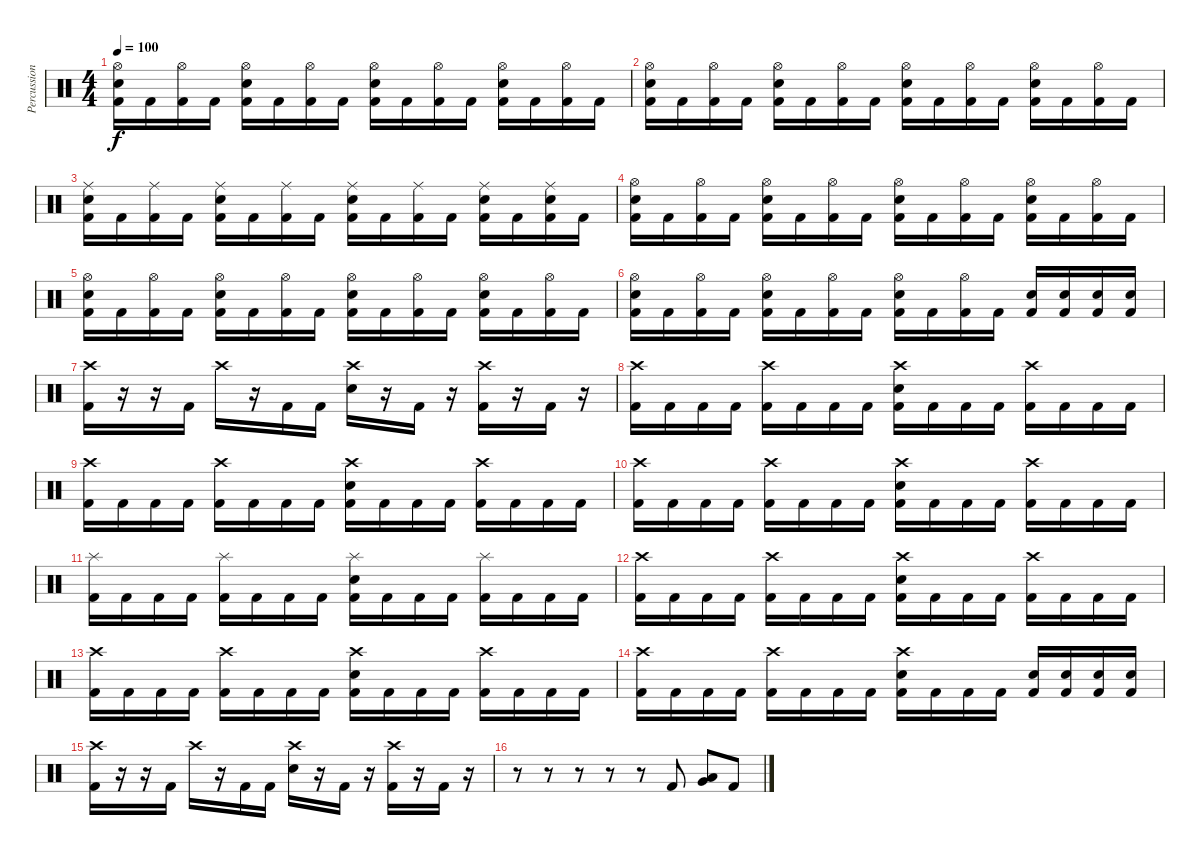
\track ("Percussion" "Percussion") {instrument percussion}
\staff {score}
\articulation defaults
\ts (4 4)
\tempo 100
\clef neutral
\ks c
("Hi-Hat (open)" "Electric Snare (hit)" "Kick (hit) 2").16{dy f} "Kick (hit) 2".16 ("Hi-Hat (open)" "Kick (hit) 2").16 "Kick (hit) 2".16 ("Hi-Hat (open)" "Electric Snare (hit)" "Kick (hit) 2").16 "Kick (hit) 2".16 ("Hi-Hat (open)" "Kick (hit) 2").16 "Kick (hit) 2".16 ("Hi-Hat (open)" "Electric Snare (hit)" "Kick (hit) 2").16 "Kick (hit) 2".16 ("Hi-Hat (open)" "Kick (hit) 2").16 "Kick (hit) 2".16 ("Hi-Hat (open)" "Electric Snare (hit)" "Kick (hit) 2").16 "Kick (hit) 2".16 ("Hi-Hat (open)" "Kick (hit) 2").16 "Kick (hit) 2".16 |
("Hi-Hat (open)" "Electric Snare (hit)" "Kick (hit) 2").16 "Kick (hit) 2".16 ("Hi-Hat (open)" "Kick (hit) 2").16 "Kick (hit) 2".16 ("Hi-Hat (open)" "Electric Snare (hit)" "Kick (hit) 2").16 "Kick (hit) 2".16 ("Hi-Hat (open)" "Kick (hit) 2").16 "Kick (hit) 2".16 ("Hi-Hat (open)" "Electric Snare (hit)" "Kick (hit) 2").16 "Kick (hit) 2".16 ("Hi-Hat (open)" "Kick (hit) 2").16 "Kick (hit) 2".16 ("Hi-Hat (open)" "Electric Snare (hit)" "Kick (hit) 2").16 "Kick (hit) 2".16 ("Hi-Hat (open)" "Kick (hit) 2").16 "Kick (hit) 2".16 |
("Ride (middle)" "Electric Snare (hit)" "Kick (hit) 2").16 "Kick (hit) 2".16 ("Ride (middle)" "Kick (hit) 2").16 "Kick (hit) 2".16 ("Ride (middle)" "Electric Snare (hit)" "Kick (hit) 2").16 "Kick (hit) 2".16 ("Ride (middle)" "Kick (hit) 2").16 "Kick (hit) 2".16 ("Ride (middle)" "Electric Snare (hit)" "Kick (hit) 2").16 "Kick (hit) 2".16 ("Ride (middle)" "Kick (hit) 2").16 "Kick (hit) 2".16 ("Ride (middle)" "Electric Snare (hit)" "Kick (hit) 2").16 "Kick (hit) 2".16 ("Ride (middle)" "Electric Snare (hit)" "Kick (hit) 2").16 "Kick (hit) 2".16 |
("Hi-Hat (open)" "Electric Snare (hit)" "Kick (hit) 2").16 "Kick (hit) 2".16 ("Hi-Hat (open)" "Kick (hit) 2").16 "Kick (hit) 2".16 ("Hi-Hat (open)" "Electric Snare (hit)" "Kick (hit) 2").16 "Kick (hit) 2".16 ("Hi-Hat (open)" "Kick (hit) 2").16 "Kick (hit) 2".16 ("Hi-Hat (open)" "Electric Snare (hit)" "Kick (hit) 2").16 "Kick (hit) 2".16 ("Hi-Hat (open)" "Kick (hit) 2").16 "Kick (hit) 2".16 ("Hi-Hat (open)" "Electric Snare (hit)" "Kick (hit) 2").16 "Kick (hit) 2".16 ("Hi-Hat (open)" "Kick (hit) 2").16 "Kick (hit) 2".16 |
("Hi-Hat (open)" "Electric Snare (hit)" "Kick (hit) 2").16 "Kick (hit) 2".16 ("Hi-Hat (open)" "Kick (hit) 2").16 "Kick (hit) 2".16 ("Hi-Hat (open)" "Electric Snare (hit)" "Kick (hit) 2").16 "Kick (hit) 2".16 ("Hi-Hat (open)" "Kick (hit) 2").16 "Kick (hit) 2".16 ("Hi-Hat (open)" "Electric Snare (hit)" "Kick (hit) 2").16 "Kick (hit) 2".16 ("Hi-Hat (open)" "Kick (hit) 2").16 "Kick (hit) 2".16 ("Hi-Hat (open)" "Electric Snare (hit)" "Kick (hit) 2").16 "Kick (hit) 2".16 ("Hi-Hat (open)" "Kick (hit) 2").16 "Kick (hit) 2".16 |
("Hi-Hat (open)" "Electric Snare (hit)" "Kick (hit) 2").16 "Kick (hit) 2".16 ("Hi-Hat (open)" "Kick (hit) 2").16 "Kick (hit) 2".16 ("Hi-Hat (open)" "Electric Snare (hit)" "Kick (hit) 2").16 "Kick (hit) 2".16 ("Hi-Hat (open)" "Kick (hit) 2").16 "Kick (hit) 2".16 ("Hi-Hat (open)" "Electric Snare (hit)" "Kick (hit) 2").16 "Kick (hit) 2".16 ("Hi-Hat (open)" "Kick (hit) 2").16 "Kick (hit) 2".16 ("Electric Snare (hit)" "Kick (hit) 2").16 ("Electric Snare (hit)" "Kick (hit) 2").16 ("Electric Snare (hit)" "Kick (hit) 2").16 ("Electric Snare (hit)" "Kick (hit) 2").16 |
("Crash high (hit)" "Kick (hit) 2").16 r.16 r.16 "Kick (hit) 2".16 "Crash high (hit)".16 r.16 "Kick (hit) 2".16 "Kick (hit) 2".16 ("Crash high (hit)" "Electric Snare (hit)").16 r.16 "Kick (hit) 2".16 r.16 ("Crash high (hit)" "Kick (hit) 2").16 r.16 "Kick (hit) 2".16 r.16 |
("Crash high (hit)" "Kick (hit) 2").16 "Kick (hit) 2".16 "Kick (hit) 2".16 "Kick (hit) 2".16 ("Crash high (hit)" "Kick (hit) 2").16 "Kick (hit) 2".16 "Kick (hit) 2".16 "Kick (hit) 2".16 ("Crash high (hit)" "Electric Snare (hit)" "Kick (hit) 2").16 "Kick (hit) 2".16 "Kick (hit) 2".16 "Kick (hit) 2".16 ("Crash high (hit)" "Kick (hit) 2").16 "Kick (hit) 2".16 "Kick (hit) 2".16 "Kick (hit) 2".16 |
("Crash high (hit)" "Kick (hit) 2").16 "Kick (hit) 2".16 "Kick (hit) 2".16 "Kick (hit) 2".16 ("Crash high (hit)" "Kick (hit) 2").16 "Kick (hit) 2".16 "Kick (hit) 2".16 "Kick (hit) 2".16 ("Crash high (hit)" "Electric Snare (hit)" "Kick (hit) 2").16 "Kick (hit) 2".16 "Kick (hit) 2".16 "Kick (hit) 2".16 ("Crash high (hit)" "Kick (hit) 2").16 "Kick (hit) 2".16 "Kick (hit) 2".16 "Kick (hit) 2".16 |
("Crash high (hit)" "Kick (hit) 2").16 "Kick (hit) 2".16 "Kick (hit) 2".16 "Kick (hit) 2".16 ("Crash high (hit)" "Kick (hit) 2").16 "Kick (hit) 2".16 "Kick (hit) 2".16 "Kick (hit) 2".16 ("Crash high (hit)" "Electric Snare (hit)" "Kick (hit) 2").16 "Kick (hit) 2".16 "Kick (hit) 2".16 "Kick (hit) 2".16 ("Crash high (hit)" "Kick (hit) 2").16 "Kick (hit) 2".16 "Kick (hit) 2".16 "Kick (hit) 2".16 |
("Splash (hit)" "Kick (hit) 2").16 "Kick (hit) 2".16 "Kick (hit) 2".16 "Kick (hit) 2".16 ("Splash (hit)" "Kick (hit) 2").16 "Kick (hit) 2".16 "Kick (hit) 2".16 "Kick (hit) 2".16 ("Splash (hit)" "Electric Snare (hit)" "Kick (hit) 2").16 "Kick (hit) 2".16 "Kick (hit) 2".16 "Kick (hit) 2".16 ("Splash (hit)" "Kick (hit) 2").16 "Kick (hit) 2".16 "Kick (hit) 2".16 "Kick (hit) 2".16 |
("Crash high (hit)" "Kick (hit) 2").16 "Kick (hit) 2".16 "Kick (hit) 2".16 "Kick (hit) 2".16 ("Crash high (hit)" "Kick (hit) 2").16 "Kick (hit) 2".16 "Kick (hit) 2".16 "Kick (hit) 2".16 ("Crash high (hit)" "Electric Snare (hit)" "Kick (hit) 2").16 "Kick (hit) 2".16 "Kick (hit) 2".16 "Kick (hit) 2".16 ("Crash high (hit)" "Kick (hit) 2").16 "Kick (hit) 2".16 "Kick (hit) 2".16 "Kick (hit) 2".16 |
("Crash high (hit)" "Kick (hit) 2").16 "Kick (hit) 2".16 "Kick (hit) 2".16 "Kick (hit) 2".16 ("Crash high (hit)" "Kick (hit) 2").16 "Kick (hit) 2".16 "Kick (hit) 2".16 "Kick (hit) 2".16 ("Crash high (hit)" "Electric Snare (hit)" "Kick (hit) 2").16 "Kick (hit) 2".16 "Kick (hit) 2".16 "Kick (hit) 2".16 ("Crash high (hit)" "Kick (hit) 2").16 "Kick (hit) 2".16 "Kick (hit) 2".16 "Kick (hit) 2".16 |
("Crash high (hit)" "Kick (hit) 2").16 "Kick (hit) 2".16 "Kick (hit) 2".16 "Kick (hit) 2".16 ("Crash high (hit)" "Kick (hit) 2").16 "Kick (hit) 2".16 "Kick (hit) 2".16 "Kick (hit) 2".16 ("Crash high (hit)" "Electric Snare (hit)" "Kick (hit) 2").16 "Kick (hit) 2".16 "Kick (hit) 2".16 "Kick (hit) 2".16 ("Electric Snare (hit)" "Kick (hit) 2").16 ("Electric Snare (hit)" "Kick (hit) 2").16 ("Electric Snare (hit)" "Kick (hit) 2").16 ("Electric Snare (hit)" "Kick (hit) 2").16 |
("Crash high (hit)" "Kick (hit) 2").16 r.16 r.16 "Kick (hit) 2".16 "Crash high (hit)".16 r.16 "Kick (hit) 2".16 "Kick (hit) 2".16 ("Crash high (hit)" "Electric Snare (hit)").16 r.16 "Kick (hit) 2".16 r.16 ("Crash high (hit)" "Kick (hit) 2").16 r.16 "Kick (hit) 2".16 r.16 |
r.8 r.8 r.8 r.8 r.8 "Kick (hit) 2".8 ("Low Floor Tom (hit)" "Very Low Tom (hit)").8 "Kick (hit) 2".8
